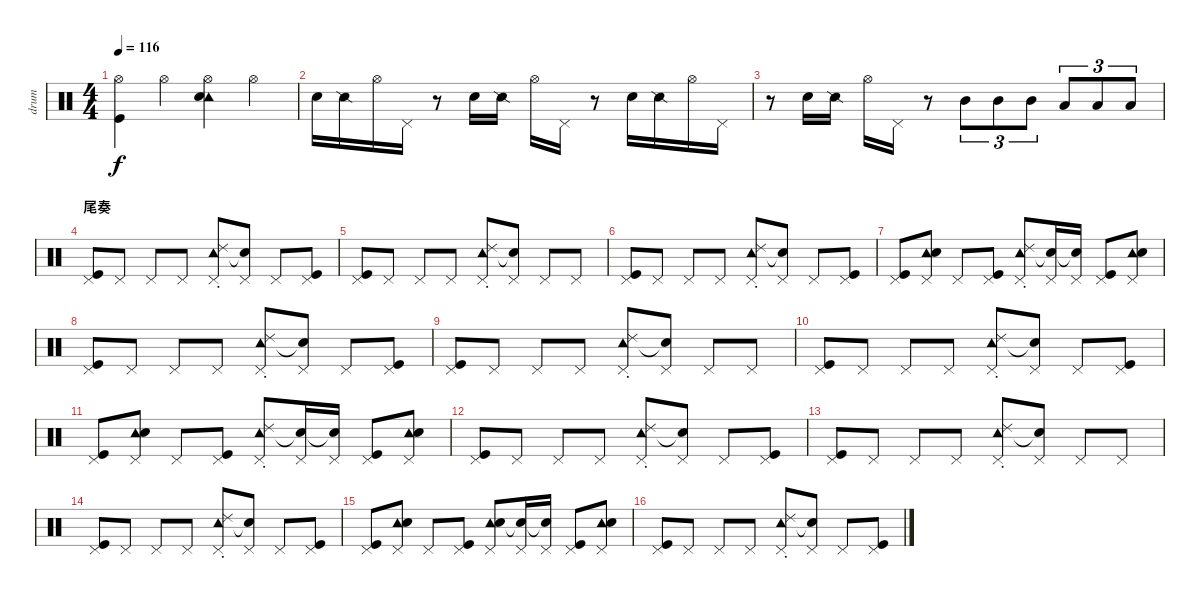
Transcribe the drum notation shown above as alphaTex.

\track ("drum" "drum") {instrument percussion}
\staff {score}
\articulation defaults
\ts (4 4)
\tempo 116
\clef neutral
\ks c
("Hi-Hat (open)" "Kick (hit)").4{dy f} "Hi-Hat (open)".4 ("Hi-Hat (open)" "Tambourine (hit)" "Snare (hit) 2").4 "Hi-Hat (open)".4 |
"Snare (hit) 2".16 "Snare (side stick) 2".16 "Hi-Hat (open)".16 "Pedal Hi-Hat (hit)".16 r.8 "Snare (hit) 2".16 "Snare (side stick) 2".16 "Hi-Hat (open)".16 "Pedal Hi-Hat (hit)".16 r.8 "Snare (hit) 2".16 "Snare (side stick) 2".16 "Hi-Hat (open)".16 "Pedal Hi-Hat (hit)".16 |
r.8 "Snare (hit) 2".16 "Snare (side stick) 2".16 "Hi-Hat (open)".16 "Pedal Hi-Hat (hit)".16 r.8 "Mid Tom (hit)".8{tu (3 2)} "Mid Tom (hit)".8{tu (3 2)} "Mid Tom (hit)".8{tu (3 2)} "Low Tom (hit)".8{tu (3 2)} "Low Tom (hit)".8{tu (3 2)} "Low Tom (hit)".8{tu (3 2)} |
\section ("" "尾奏")
("Pedal Hi-Hat (hit)" "Kick (hit)").8 "Pedal Hi-Hat (hit)".8 "Pedal Hi-Hat (hit)".8 "Pedal Hi-Hat (hit)".8 ("Pedal Hi-Hat (hit)" "Tambourine (hit)" "Ride (choke) 2").8 ("Pedal Hi-Hat (hit)" "Snare (hit)"{t}).8 "Pedal Hi-Hat (hit)".8 ("Pedal Hi-Hat (hit)" "Kick (hit)").8 |
("Pedal Hi-Hat (hit)" "Kick (hit)").8 "Pedal Hi-Hat (hit)".8 "Pedal Hi-Hat (hit)".8 "Pedal Hi-Hat (hit)".8 ("Pedal Hi-Hat (hit)" "Tambourine (hit)" "Ride (choke) 2").8 ("Pedal Hi-Hat (hit)" "Snare (hit)"{t}).8 "Pedal Hi-Hat (hit)".8 "Pedal Hi-Hat (hit)".8 |
("Pedal Hi-Hat (hit)" "Kick (hit)").8 "Pedal Hi-Hat (hit)".8 "Pedal Hi-Hat (hit)".8 "Pedal Hi-Hat (hit)".8 ("Pedal Hi-Hat (hit)" "Tambourine (hit)" "Ride (choke) 2").8 ("Pedal Hi-Hat (hit)" "Snare (hit)"{t}).8 "Pedal Hi-Hat (hit)".8 ("Pedal Hi-Hat (hit)" "Kick (hit)").8 |
("Pedal Hi-Hat (hit)" "Kick (hit)").8 ("Pedal Hi-Hat (hit)" "Tambourine (hit)" "Snare (hit) 2").8 "Pedal Hi-Hat (hit)".8 ("Pedal Hi-Hat (hit)" "Kick (hit)").8 ("Pedal Hi-Hat (hit)" "Tambourine (hit)" "Ride (choke) 2").8 ("Pedal Hi-Hat (hit)" "Snare (hit)"{t}).16 ("Pedal Hi-Hat (hit)" "Snare (hit)"{t}).16 ("Pedal Hi-Hat (hit)" "Kick (hit)").8 ("Pedal Hi-Hat (hit)" "Tambourine (hit)" "Snare (hit) 2").8 |
("Pedal Hi-Hat (hit)" "Kick (hit)").8 "Pedal Hi-Hat (hit)".8 "Pedal Hi-Hat (hit)".8 "Pedal Hi-Hat (hit)".8 ("Pedal Hi-Hat (hit)" "Tambourine (hit)" "Ride (choke) 2").8 ("Pedal Hi-Hat (hit)" "Snare (hit)"{t}).8 "Pedal Hi-Hat (hit)".8 ("Pedal Hi-Hat (hit)" "Kick (hit)").8 |
("Pedal Hi-Hat (hit)" "Kick (hit)").8 "Pedal Hi-Hat (hit)".8 "Pedal Hi-Hat (hit)".8 "Pedal Hi-Hat (hit)".8 ("Pedal Hi-Hat (hit)" "Tambourine (hit)" "Ride (choke) 2").8 ("Pedal Hi-Hat (hit)" "Snare (hit)"{t}).8 "Pedal Hi-Hat (hit)".8 "Pedal Hi-Hat (hit)".8 |
("Pedal Hi-Hat (hit)" "Kick (hit)").8 "Pedal Hi-Hat (hit)".8 "Pedal Hi-Hat (hit)".8 "Pedal Hi-Hat (hit)".8 ("Pedal Hi-Hat (hit)" "Tambourine (hit)" "Ride (choke) 2").8 ("Pedal Hi-Hat (hit)" "Snare (hit)"{t}).8 "Pedal Hi-Hat (hit)".8 ("Pedal Hi-Hat (hit)" "Kick (hit)").8 |
("Pedal Hi-Hat (hit)" "Kick (hit)").8 ("Pedal Hi-Hat (hit)" "Tambourine (hit)" "Snare (hit) 2").8 "Pedal Hi-Hat (hit)".8 ("Pedal Hi-Hat (hit)" "Kick (hit)").8 ("Pedal Hi-Hat (hit)" "Tambourine (hit)" "Ride (choke) 2").8 ("Pedal Hi-Hat (hit)" "Snare (hit)"{t}).16 ("Pedal Hi-Hat (hit)" "Snare (hit)"{t}).16 ("Pedal Hi-Hat (hit)" "Kick (hit)").8 ("Pedal Hi-Hat (hit)" "Tambourine (hit)" "Snare (hit) 2").8 |
("Pedal Hi-Hat (hit)" "Kick (hit)").8 "Pedal Hi-Hat (hit)".8 "Pedal Hi-Hat (hit)".8 "Pedal Hi-Hat (hit)".8 ("Pedal Hi-Hat (hit)" "Tambourine (hit)" "Ride (choke) 2").8 ("Pedal Hi-Hat (hit)" "Snare (hit)"{t}).8 "Pedal Hi-Hat (hit)".8 ("Pedal Hi-Hat (hit)" "Kick (hit)").8 |
("Pedal Hi-Hat (hit)" "Kick (hit)").8 "Pedal Hi-Hat (hit)".8 "Pedal Hi-Hat (hit)".8 "Pedal Hi-Hat (hit)".8 ("Pedal Hi-Hat (hit)" "Tambourine (hit)" "Ride (choke) 2").8 ("Pedal Hi-Hat (hit)" "Snare (hit)"{t}).8 "Pedal Hi-Hat (hit)".8 "Pedal Hi-Hat (hit)".8 |
("Pedal Hi-Hat (hit)" "Kick (hit)").8 "Pedal Hi-Hat (hit)".8 "Pedal Hi-Hat (hit)".8 "Pedal Hi-Hat (hit)".8 ("Pedal Hi-Hat (hit)" "Tambourine (hit)" "Ride (choke) 2").8 ("Pedal Hi-Hat (hit)" "Snare (hit)"{t}).8 "Pedal Hi-Hat (hit)".8 ("Pedal Hi-Hat (hit)" "Kick (hit)").8 |
("Pedal Hi-Hat (hit)" "Kick (hit)").8 ("Pedal Hi-Hat (hit)" "Tambourine (hit)" "Snare (hit) 2").8 "Pedal Hi-Hat (hit)".8 ("Pedal Hi-Hat (hit)" "Kick (hit)").8 ("Pedal Hi-Hat (hit)" "Tambourine (hit)" "Snare (hit) 2").8 ("Pedal Hi-Hat (hit)" "Snare (hit)"{t}).16 ("Pedal Hi-Hat (hit)" "Snare (hit)"{t}).16 ("Pedal Hi-Hat (hit)" "Kick (hit)").8 ("Pedal Hi-Hat (hit)" "Tambourine (hit)" "Snare (hit) 2").8 |
("Pedal Hi-Hat (hit)" "Kick (hit)").8 "Pedal Hi-Hat (hit)".8 "Pedal Hi-Hat (hit)".8 "Pedal Hi-Hat (hit)".8 ("Pedal Hi-Hat (hit)" "Tambourine (hit)" "Ride (choke) 2").8 ("Pedal Hi-Hat (hit)" "Snare (hit)"{t}).8 "Pedal Hi-Hat (hit)".8 ("Pedal Hi-Hat (hit)" "Kick (hit)").8
